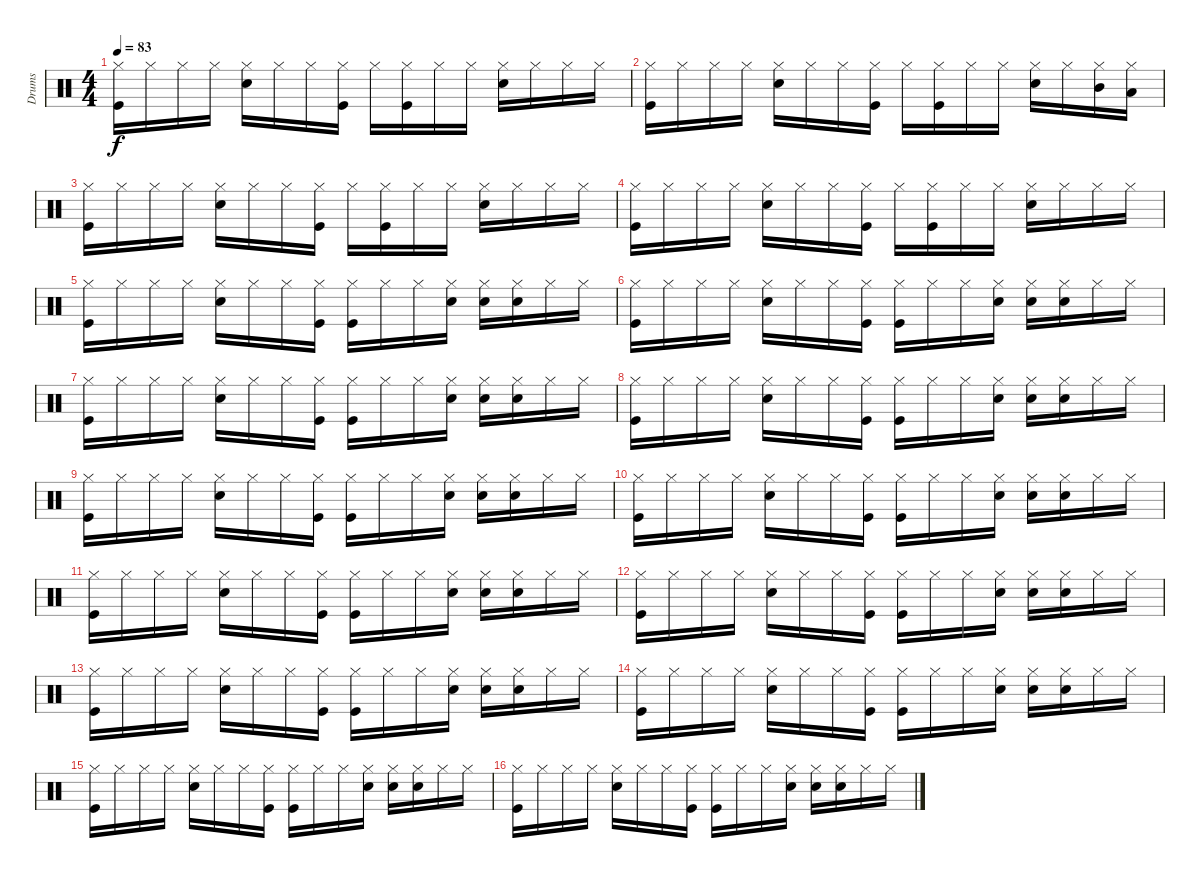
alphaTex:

\track ("Drums" "Drums") {instrument percussion}
\staff {score}
\articulation defaults
\ts (4 4)
\tempo 83
\clef neutral
\ks c
("Hi-Hat (closed)" "Kick (hit)").16{dy f} "Hi-Hat (closed)".16 "Hi-Hat (closed)".16 "Hi-Hat (closed)".16 ("Hi-Hat (closed)" "Snare (hit) 2").16 "Hi-Hat (closed)".16 "Hi-Hat (closed)".16 ("Hi-Hat (closed)" "Kick (hit)").16 "Hi-Hat (closed)".16 ("Hi-Hat (closed)" "Kick (hit)").16 "Hi-Hat (closed)".16 "Hi-Hat (closed)".16 ("Hi-Hat (closed)" "Snare (hit) 2").16 "Hi-Hat (closed)".16 "Hi-Hat (closed)".16 "Hi-Hat (closed)".16 |
("Hi-Hat (closed)" "Kick (hit)").16 "Hi-Hat (closed)".16 "Hi-Hat (closed)".16 "Hi-Hat (closed)".16 ("Hi-Hat (closed)" "Snare (hit) 2").16 "Hi-Hat (closed)".16 "Hi-Hat (closed)".16 ("Hi-Hat (closed)" "Kick (hit)").16 "Hi-Hat (closed)".16 ("Hi-Hat (closed)" "Kick (hit)").16 "Hi-Hat (closed)".16 "Hi-Hat (closed)".16 ("Hi-Hat (closed)" "Snare (hit) 2").16 "Hi-Hat (closed)".16 ("Hi-Hat (closed)" "Mid Tom (hit)").16 ("Hi-Hat (closed)" "Low Tom (hit)").16 |
("Hi-Hat (closed)" "Kick (hit)").16 "Hi-Hat (closed)".16 "Hi-Hat (closed)".16 "Hi-Hat (closed)".16 ("Hi-Hat (closed)" "Snare (hit) 2").16 "Hi-Hat (closed)".16 "Hi-Hat (closed)".16 ("Hi-Hat (closed)" "Kick (hit)").16 "Hi-Hat (closed)".16 ("Hi-Hat (closed)" "Kick (hit)").16 "Hi-Hat (closed)".16 "Hi-Hat (closed)".16 ("Hi-Hat (closed)" "Snare (hit) 2").16 "Hi-Hat (closed)".16 "Hi-Hat (closed)".16 "Hi-Hat (closed)".16 |
("Hi-Hat (closed)" "Kick (hit)").16 "Hi-Hat (closed)".16 "Hi-Hat (closed)".16 "Hi-Hat (closed)".16 ("Hi-Hat (closed)" "Snare (hit) 2").16 "Hi-Hat (closed)".16 "Hi-Hat (closed)".16 ("Hi-Hat (closed)" "Kick (hit)").16 "Hi-Hat (closed)".16 ("Hi-Hat (closed)" "Kick (hit)").16 "Hi-Hat (closed)".16 "Hi-Hat (closed)".16 ("Hi-Hat (closed)" "Snare (hit) 2").16 "Hi-Hat (closed)".16 "Hi-Hat (closed)".16 "Hi-Hat (closed)".16 |
("Hi-Hat (closed)" "Kick (hit)").16 "Hi-Hat (closed)".16 "Hi-Hat (closed)".16 "Hi-Hat (closed)".16 ("Hi-Hat (closed)" "Snare (hit) 2").16 "Hi-Hat (closed)".16 "Hi-Hat (closed)".16 ("Hi-Hat (closed)" "Kick (hit)").16 ("Hi-Hat (closed)" "Kick (hit)").16 "Hi-Hat (closed)".16 "Hi-Hat (closed)".16 ("Hand Clap (hit)" "Hi-Hat (closed)").16 ("Hi-Hat (closed)" "Snare (hit) 2").16 ("Hand Clap (hit)" "Hi-Hat (closed)").16 "Hi-Hat (closed)".16 "Hi-Hat (closed)".16 |
("Hi-Hat (closed)" "Kick (hit)").16 "Hi-Hat (closed)".16 "Hi-Hat (closed)".16 "Hi-Hat (closed)".16 ("Hi-Hat (closed)" "Snare (hit) 2").16 "Hi-Hat (closed)".16 "Hi-Hat (closed)".16 ("Hi-Hat (closed)" "Kick (hit)").16 ("Hi-Hat (closed)" "Kick (hit)").16 "Hi-Hat (closed)".16 "Hi-Hat (closed)".16 ("Hand Clap (hit)" "Hi-Hat (closed)").16 ("Hi-Hat (closed)" "Snare (hit) 2").16 ("Hand Clap (hit)" "Hi-Hat (closed)").16 "Hi-Hat (closed)".16 "Hi-Hat (closed)".16 |
("Hi-Hat (closed)" "Kick (hit)").16 "Hi-Hat (closed)".16 "Hi-Hat (closed)".16 "Hi-Hat (closed)".16 ("Hi-Hat (closed)" "Snare (hit) 2").16 "Hi-Hat (closed)".16 "Hi-Hat (closed)".16 ("Hi-Hat (closed)" "Kick (hit)").16 ("Hi-Hat (closed)" "Kick (hit)").16 "Hi-Hat (closed)".16 "Hi-Hat (closed)".16 ("Hand Clap (hit)" "Hi-Hat (closed)").16 ("Hi-Hat (closed)" "Snare (hit) 2").16 ("Hand Clap (hit)" "Hi-Hat (closed)").16 "Hi-Hat (closed)".16 "Hi-Hat (closed)".16 |
("Hi-Hat (closed)" "Kick (hit)").16 "Hi-Hat (closed)".16 "Hi-Hat (closed)".16 "Hi-Hat (closed)".16 ("Hi-Hat (closed)" "Snare (hit) 2").16 "Hi-Hat (closed)".16 "Hi-Hat (closed)".16 ("Hi-Hat (closed)" "Kick (hit)").16 ("Hi-Hat (closed)" "Kick (hit)").16 "Hi-Hat (closed)".16 "Hi-Hat (closed)".16 ("Hand Clap (hit)" "Hi-Hat (closed)").16 ("Hi-Hat (closed)" "Snare (hit) 2").16 ("Hand Clap (hit)" "Hi-Hat (closed)").16 "Hi-Hat (closed)".16 "Hi-Hat (closed)".16 |
("Hi-Hat (closed)" "Kick (hit)").16 "Hi-Hat (closed)".16 "Hi-Hat (closed)".16 "Hi-Hat (closed)".16 ("Hi-Hat (closed)" "Snare (hit) 2").16 "Hi-Hat (closed)".16 "Hi-Hat (closed)".16 ("Hi-Hat (closed)" "Kick (hit)").16 ("Hi-Hat (closed)" "Kick (hit)").16 "Hi-Hat (closed)".16 "Hi-Hat (closed)".16 ("Hand Clap (hit)" "Hi-Hat (closed)").16 ("Hi-Hat (closed)" "Snare (hit) 2").16 ("Hand Clap (hit)" "Hi-Hat (closed)").16 "Hi-Hat (closed)".16 "Hi-Hat (closed)".16 |
("Hi-Hat (closed)" "Kick (hit)").16 "Hi-Hat (closed)".16 "Hi-Hat (closed)".16 "Hi-Hat (closed)".16 ("Hi-Hat (closed)" "Snare (hit) 2").16 "Hi-Hat (closed)".16 "Hi-Hat (closed)".16 ("Hi-Hat (closed)" "Kick (hit)").16 ("Hi-Hat (closed)" "Kick (hit)").16 "Hi-Hat (closed)".16 "Hi-Hat (closed)".16 ("Hand Clap (hit)" "Hi-Hat (closed)").16 ("Hi-Hat (closed)" "Snare (hit) 2").16 ("Hand Clap (hit)" "Hi-Hat (closed)").16 "Hi-Hat (closed)".16 "Hi-Hat (closed)".16 |
("Hi-Hat (closed)" "Kick (hit)").16 "Hi-Hat (closed)".16 "Hi-Hat (closed)".16 "Hi-Hat (closed)".16 ("Hi-Hat (closed)" "Snare (hit) 2").16 "Hi-Hat (closed)".16 "Hi-Hat (closed)".16 ("Hi-Hat (closed)" "Kick (hit)").16 ("Hi-Hat (closed)" "Kick (hit)").16 "Hi-Hat (closed)".16 "Hi-Hat (closed)".16 ("Hand Clap (hit)" "Hi-Hat (closed)").16 ("Hi-Hat (closed)" "Snare (hit) 2").16 ("Hand Clap (hit)" "Hi-Hat (closed)").16 "Hi-Hat (closed)".16 "Hi-Hat (closed)".16 |
("Hi-Hat (closed)" "Kick (hit)").16 "Hi-Hat (closed)".16 "Hi-Hat (closed)".16 "Hi-Hat (closed)".16 ("Hi-Hat (closed)" "Snare (hit) 2").16 "Hi-Hat (closed)".16 "Hi-Hat (closed)".16 ("Hi-Hat (closed)" "Kick (hit)").16 ("Hi-Hat (closed)" "Kick (hit)").16 "Hi-Hat (closed)".16 "Hi-Hat (closed)".16 ("Hand Clap (hit)" "Hi-Hat (closed)").16 ("Hi-Hat (closed)" "Snare (hit) 2").16 ("Hand Clap (hit)" "Hi-Hat (closed)").16 "Hi-Hat (closed)".16 "Hi-Hat (closed)".16 |
("Hi-Hat (closed)" "Kick (hit)").16 "Hi-Hat (closed)".16 "Hi-Hat (closed)".16 "Hi-Hat (closed)".16 ("Hi-Hat (closed)" "Snare (hit) 2").16 "Hi-Hat (closed)".16 "Hi-Hat (closed)".16 ("Hi-Hat (closed)" "Kick (hit)").16 ("Hi-Hat (closed)" "Kick (hit)").16 "Hi-Hat (closed)".16 "Hi-Hat (closed)".16 ("Hand Clap (hit)" "Hi-Hat (closed)").16 ("Hi-Hat (closed)" "Snare (hit) 2").16 ("Hand Clap (hit)" "Hi-Hat (closed)").16 "Hi-Hat (closed)".16 "Hi-Hat (closed)".16 |
("Hi-Hat (closed)" "Kick (hit)").16 "Hi-Hat (closed)".16 "Hi-Hat (closed)".16 "Hi-Hat (closed)".16 ("Hi-Hat (closed)" "Snare (hit) 2").16 "Hi-Hat (closed)".16 "Hi-Hat (closed)".16 ("Hi-Hat (closed)" "Kick (hit)").16 ("Hi-Hat (closed)" "Kick (hit)").16 "Hi-Hat (closed)".16 "Hi-Hat (closed)".16 ("Hand Clap (hit)" "Hi-Hat (closed)").16 ("Hi-Hat (closed)" "Snare (hit) 2").16 ("Hand Clap (hit)" "Hi-Hat (closed)").16 "Hi-Hat (closed)".16 "Hi-Hat (closed)".16 |
("Hi-Hat (closed)" "Kick (hit)").16 "Hi-Hat (closed)".16 "Hi-Hat (closed)".16 "Hi-Hat (closed)".16 ("Hi-Hat (closed)" "Snare (hit) 2").16 "Hi-Hat (closed)".16 "Hi-Hat (closed)".16 ("Hi-Hat (closed)" "Kick (hit)").16 ("Hi-Hat (closed)" "Kick (hit)").16 "Hi-Hat (closed)".16 "Hi-Hat (closed)".16 ("Hand Clap (hit)" "Hi-Hat (closed)").16 ("Hi-Hat (closed)" "Snare (hit) 2").16 ("Hand Clap (hit)" "Hi-Hat (closed)").16 "Hi-Hat (closed)".16 "Hi-Hat (closed)".16 |
("Hi-Hat (closed)" "Kick (hit)").16 "Hi-Hat (closed)".16 "Hi-Hat (closed)".16 "Hi-Hat (closed)".16 ("Hi-Hat (closed)" "Snare (hit) 2").16 "Hi-Hat (closed)".16 "Hi-Hat (closed)".16 ("Hi-Hat (closed)" "Kick (hit)").16 ("Hi-Hat (closed)" "Kick (hit)").16 "Hi-Hat (closed)".16 "Hi-Hat (closed)".16 ("Hand Clap (hit)" "Hi-Hat (closed)").16 ("Hi-Hat (closed)" "Snare (hit) 2").16 ("Hand Clap (hit)" "Hi-Hat (closed)").16 "Hi-Hat (closed)".16 "Hi-Hat (closed)".16
